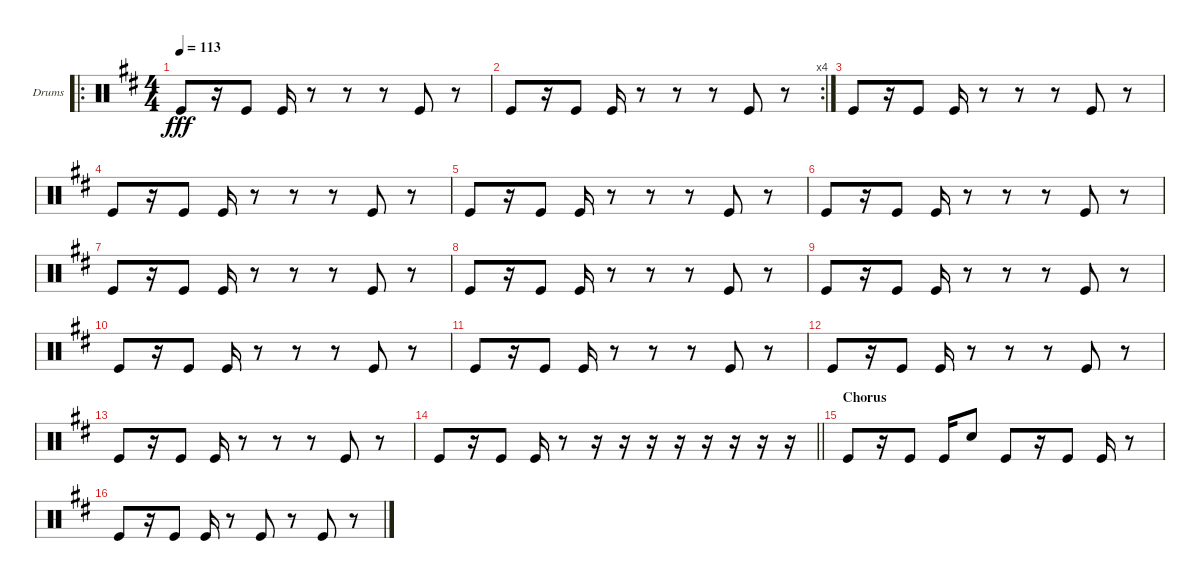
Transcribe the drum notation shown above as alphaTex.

\bracketExtendMode groupsimilarinstruments
\firstSystemTrackNameOrientation horizontal
\otherSystemsTrackNameOrientation horizontal
\track ("Kick" "Drums") {instrument percussion}
\staff {score}
\articulation defaults
\ro
\ts (4 4)
\beaming (8 2 2 2 2)
\tempo 113
\clef neutral
\scale
0.528
\ks d "Kick (hit)".8{dy fff}
r.16 "Kick (hit)".8 "Kick (hit)".16 r.8 r.8 r.8 "Kick (hit)".8 r.8 |
\rc 4
\scale
0.248 "Kick (hit)".8 r.16 "Kick (hit)".8 "Kick (hit)".16 r.8 r.8 r.8 "Kick (hit)".8 r.8 |
\scale
0.224 "Kick (hit)".8 r.16 "Kick (hit)".8 "Kick (hit)".16 r.8 r.8 r.8 "Kick (hit)".8 r.8 |
\scale
0.333333 "Kick (hit)".8 r.16 "Kick (hit)".8 "Kick (hit)".16 r.8 r.8 r.8 "Kick (hit)".8 r.8 |
\scale
0.333333 "Kick (hit)".8 r.16 "Kick (hit)".8 "Kick (hit)".16 r.8 r.8 r.8 "Kick (hit)".8 r.8 |
\scale
0.333333 "Kick (hit)".8 r.16 "Kick (hit)".8 "Kick (hit)".16 r.8 r.8 r.8 "Kick (hit)".8 r.8 |
\scale
0.333333 "Kick (hit)".8 r.16 "Kick (hit)".8 "Kick (hit)".16 r.8 r.8 r.8 "Kick (hit)".8 r.8 |
\scale
0.333333 "Kick (hit)".8 r.16 "Kick (hit)".8 "Kick (hit)".16 r.8 r.8 r.8 "Kick (hit)".8 r.8 |
\scale
0.333333 "Kick (hit)".8 r.16 "Kick (hit)".8 "Kick (hit)".16 r.8 r.8 r.8 "Kick (hit)".8 r.8 |
\scale
0.333333 "Kick (hit)".8 r.16 "Kick (hit)".8 "Kick (hit)".16 r.8 r.8 r.8 "Kick (hit)".8 r.8 |
\scale
0.333333 "Kick (hit)".8 r.16 "Kick (hit)".8 "Kick (hit)".16 r.8 r.8 r.8 "Kick (hit)".8 r.8 |
\scale
0.333333 "Kick (hit)".8 r.16 "Kick (hit)".8 "Kick (hit)".16 r.8 r.8 r.8 "Kick (hit)".8 r.8 |
\scale
0.333333 "Kick (hit)".8 r.16 "Kick (hit)".8 "Kick (hit)".16 r.8 r.8 r.8 "Kick (hit)".8 r.8 |
\scale
0.333333
\barLineRight lightlight "Kick (hit)".8
r.16 "Kick (hit)".8 "Kick (hit)".16 r.8 r.16 r.16 r.16 r.16 r.16 r.16 r.16 r.16 |
\section ("" "Chorus")
\scale
0.333333 "Kick (hit)".8 r.16 "Kick (hit)".8 "Kick (hit)".16 "Snare (hit) 2".8 "Kick (hit)".8 r.16 "Kick (hit)".8 "Kick (hit)".16 r.8 |
\scale
0.333333 "Kick (hit)".8 r.16 "Kick (hit)".8 "Kick (hit)".16 r.8 "Kick (hit)".8 r.8 "Kick (hit)".8 r.8
